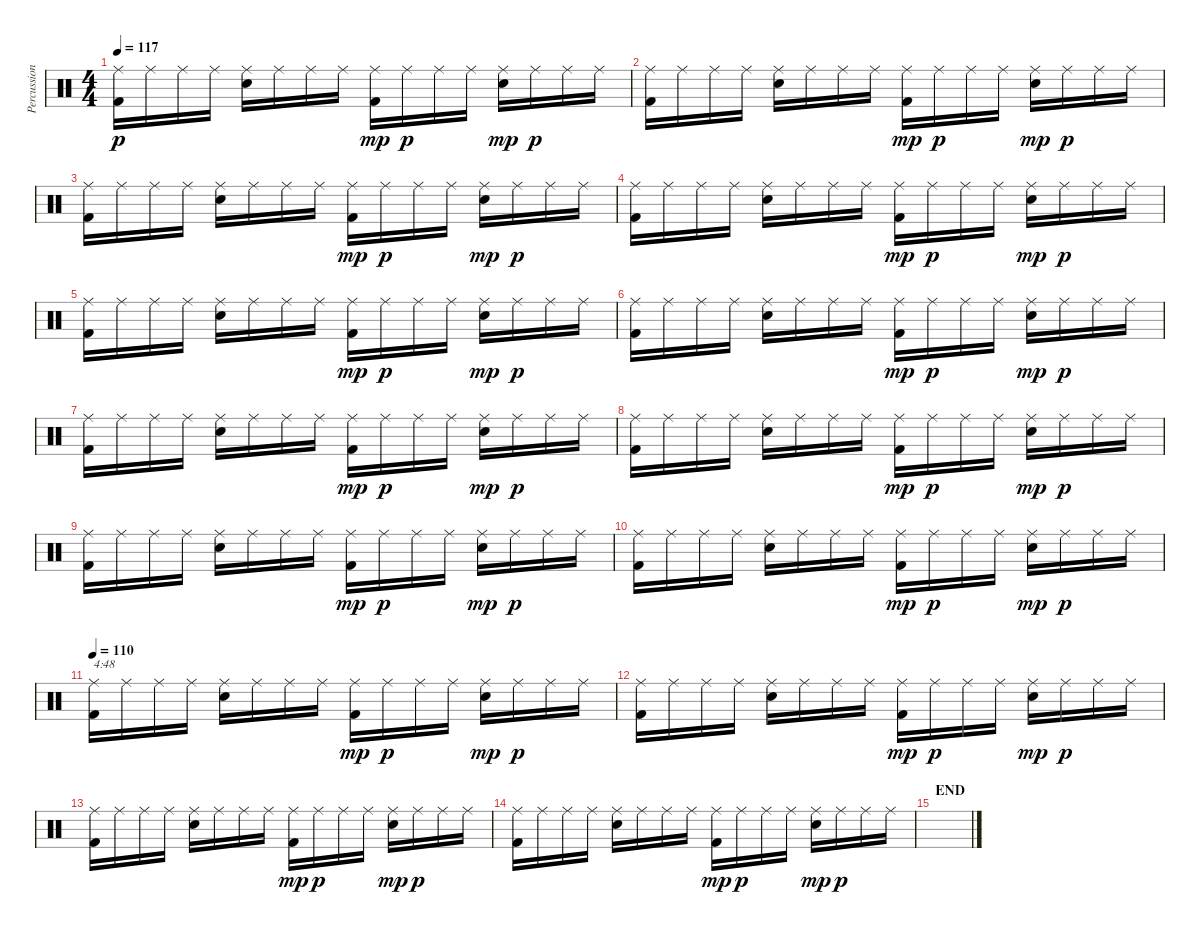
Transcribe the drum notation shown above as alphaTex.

\track ("Percussion" "Percussion") {instrument percussion}
\staff {score}
\articulation defaults
\ts (4 4)
\tempo 117
\clef neutral
\ks c
("Kick (hit) 2" "Ride (middle)").16{dy p} "Ride (middle)".16 "Ride (middle)".16 "Ride (middle)".16 ("Snare (hit) 2" "Ride (middle)").16 "Ride (middle)".16 "Ride (middle)".16 "Ride (middle)".16 ("Kick (hit) 2" "Ride (middle)").16{dy mp} "Ride (middle)".16{dy p} "Ride (middle)".16 "Ride (middle)".16 ("Snare (hit) 2" "Ride (middle)").16{dy mp} "Ride (middle)".16{dy p} "Ride (middle)".16 "Ride (middle)".16 |
("Kick (hit) 2" "Ride (middle)").16 "Ride (middle)".16 "Ride (middle)".16 "Ride (middle)".16 ("Snare (hit) 2" "Ride (middle)").16 "Ride (middle)".16 "Ride (middle)".16 "Ride (middle)".16 ("Kick (hit) 2" "Ride (middle)").16{dy mp} "Ride (middle)".16{dy p} "Ride (middle)".16 "Ride (middle)".16 ("Snare (hit) 2" "Ride (middle)").16{dy mp} "Ride (middle)".16{dy p} "Ride (middle)".16 "Ride (middle)".16 |
("Kick (hit) 2" "Ride (middle)").16 "Ride (middle)".16 "Ride (middle)".16 "Ride (middle)".16 ("Snare (hit) 2" "Ride (middle)").16 "Ride (middle)".16 "Ride (middle)".16 "Ride (middle)".16 ("Kick (hit) 2" "Ride (middle)").16{dy mp} "Ride (middle)".16{dy p} "Ride (middle)".16 "Ride (middle)".16 ("Snare (hit) 2" "Ride (middle)").16{dy mp} "Ride (middle)".16{dy p} "Ride (middle)".16 "Ride (middle)".16 |
("Kick (hit) 2" "Ride (middle)").16 "Ride (middle)".16 "Ride (middle)".16 "Ride (middle)".16 ("Snare (hit) 2" "Ride (middle)").16 "Ride (middle)".16 "Ride (middle)".16 "Ride (middle)".16 ("Kick (hit) 2" "Ride (middle)").16{dy mp} "Ride (middle)".16{dy p} "Ride (middle)".16 "Ride (middle)".16 ("Snare (hit) 2" "Ride (middle)").16{dy mp} "Ride (middle)".16{dy p} "Ride (middle)".16 "Ride (middle)".16 |
("Kick (hit) 2" "Ride (middle)").16 "Ride (middle)".16 "Ride (middle)".16 "Ride (middle)".16 ("Snare (hit) 2" "Ride (middle)").16 "Ride (middle)".16 "Ride (middle)".16 "Ride (middle)".16 ("Kick (hit) 2" "Ride (middle)").16{dy mp} "Ride (middle)".16{dy p} "Ride (middle)".16 "Ride (middle)".16 ("Snare (hit) 2" "Ride (middle)").16{dy mp} "Ride (middle)".16{dy p} "Ride (middle)".16 "Ride (middle)".16 |
("Kick (hit) 2" "Ride (middle)").16 "Ride (middle)".16 "Ride (middle)".16 "Ride (middle)".16 ("Snare (hit) 2" "Ride (middle)").16 "Ride (middle)".16 "Ride (middle)".16 "Ride (middle)".16 ("Kick (hit) 2" "Ride (middle)").16{dy mp} "Ride (middle)".16{dy p} "Ride (middle)".16 "Ride (middle)".16 ("Snare (hit) 2" "Ride (middle)").16{dy mp} "Ride (middle)".16{dy p} "Ride (middle)".16 "Ride (middle)".16 |
("Kick (hit) 2" "Ride (middle)").16 "Ride (middle)".16 "Ride (middle)".16 "Ride (middle)".16 ("Snare (hit) 2" "Ride (middle)").16 "Ride (middle)".16 "Ride (middle)".16 "Ride (middle)".16 ("Kick (hit) 2" "Ride (middle)").16{dy mp} "Ride (middle)".16{dy p} "Ride (middle)".16 "Ride (middle)".16 ("Snare (hit) 2" "Ride (middle)").16{dy mp} "Ride (middle)".16{dy p} "Ride (middle)".16 "Ride (middle)".16 |
("Kick (hit) 2" "Ride (middle)").16 "Ride (middle)".16 "Ride (middle)".16 "Ride (middle)".16 ("Snare (hit) 2" "Ride (middle)").16 "Ride (middle)".16 "Ride (middle)".16 "Ride (middle)".16 ("Kick (hit) 2" "Ride (middle)").16{dy mp} "Ride (middle)".16{dy p} "Ride (middle)".16 "Ride (middle)".16 ("Snare (hit) 2" "Ride (middle)").16{dy mp} "Ride (middle)".16{dy p} "Ride (middle)".16 "Ride (middle)".16 |
("Kick (hit) 2" "Ride (middle)").16 "Ride (middle)".16 "Ride (middle)".16 "Ride (middle)".16 ("Snare (hit) 2" "Ride (middle)").16 "Ride (middle)".16 "Ride (middle)".16 "Ride (middle)".16 ("Kick (hit) 2" "Ride (middle)").16{dy mp} "Ride (middle)".16{dy p} "Ride (middle)".16 "Ride (middle)".16 ("Snare (hit) 2" "Ride (middle)").16{dy mp} "Ride (middle)".16{dy p} "Ride (middle)".16 "Ride (middle)".16 |
("Kick (hit) 2" "Ride (middle)").16 "Ride (middle)".16 "Ride (middle)".16 "Ride (middle)".16 ("Snare (hit) 2" "Ride (middle)").16 "Ride (middle)".16 "Ride (middle)".16 "Ride (middle)".16 ("Kick (hit) 2" "Ride (middle)").16{dy mp} "Ride (middle)".16{dy p} "Ride (middle)".16 "Ride (middle)".16 ("Snare (hit) 2" "Ride (middle)").16{dy mp} "Ride (middle)".16{dy p} "Ride (middle)".16 "Ride (middle)".16 |
\tempo 110
("Kick (hit) 2" "Ride (middle)").16{txt "4:48"} "Ride (middle)".16 "Ride (middle)".16 "Ride (middle)".16 ("Snare (hit) 2" "Ride (middle)").16 "Ride (middle)".16 "Ride (middle)".16 "Ride (middle)".16 ("Kick (hit) 2" "Ride (middle)").16{dy mp} "Ride (middle)".16{dy p} "Ride (middle)".16 "Ride (middle)".16 ("Snare (hit) 2" "Ride (middle)").16{dy mp} "Ride (middle)".16{dy p} "Ride (middle)".16 "Ride (middle)".16 |
("Kick (hit) 2" "Ride (middle)").16 "Ride (middle)".16 "Ride (middle)".16 "Ride (middle)".16 ("Snare (hit) 2" "Ride (middle)").16 "Ride (middle)".16 "Ride (middle)".16 "Ride (middle)".16 ("Kick (hit) 2" "Ride (middle)").16{dy mp} "Ride (middle)".16{dy p} "Ride (middle)".16 "Ride (middle)".16 ("Snare (hit) 2" "Ride (middle)").16{dy mp} "Ride (middle)".16{dy p} "Ride (middle)".16 "Ride (middle)".16 |
("Kick (hit) 2" "Ride (middle)").16 "Ride (middle)".16 "Ride (middle)".16 "Ride (middle)".16 ("Snare (hit) 2" "Ride (middle)").16 "Ride (middle)".16 "Ride (middle)".16 "Ride (middle)".16 ("Kick (hit) 2" "Ride (middle)").16{dy mp} "Ride (middle)".16{dy p} "Ride (middle)".16 "Ride (middle)".16 ("Snare (hit) 2" "Ride (middle)").16{dy mp} "Ride (middle)".16{dy p} "Ride (middle)".16 "Ride (middle)".16 |
("Kick (hit) 2" "Ride (middle)").16 "Ride (middle)".16 "Ride (middle)".16 "Ride (middle)".16 ("Snare (hit) 2" "Ride (middle)").16 "Ride (middle)".16 "Ride (middle)".16 "Ride (middle)".16 ("Kick (hit) 2" "Ride (middle)").16{dy mp} "Ride (middle)".16{dy p} "Ride (middle)".16 "Ride (middle)".16 ("Snare (hit) 2" "Ride (middle)").16{dy mp} "Ride (middle)".16{dy p} "Ride (middle)".16 "Ride (middle)".16 |
\section ("" "END")
